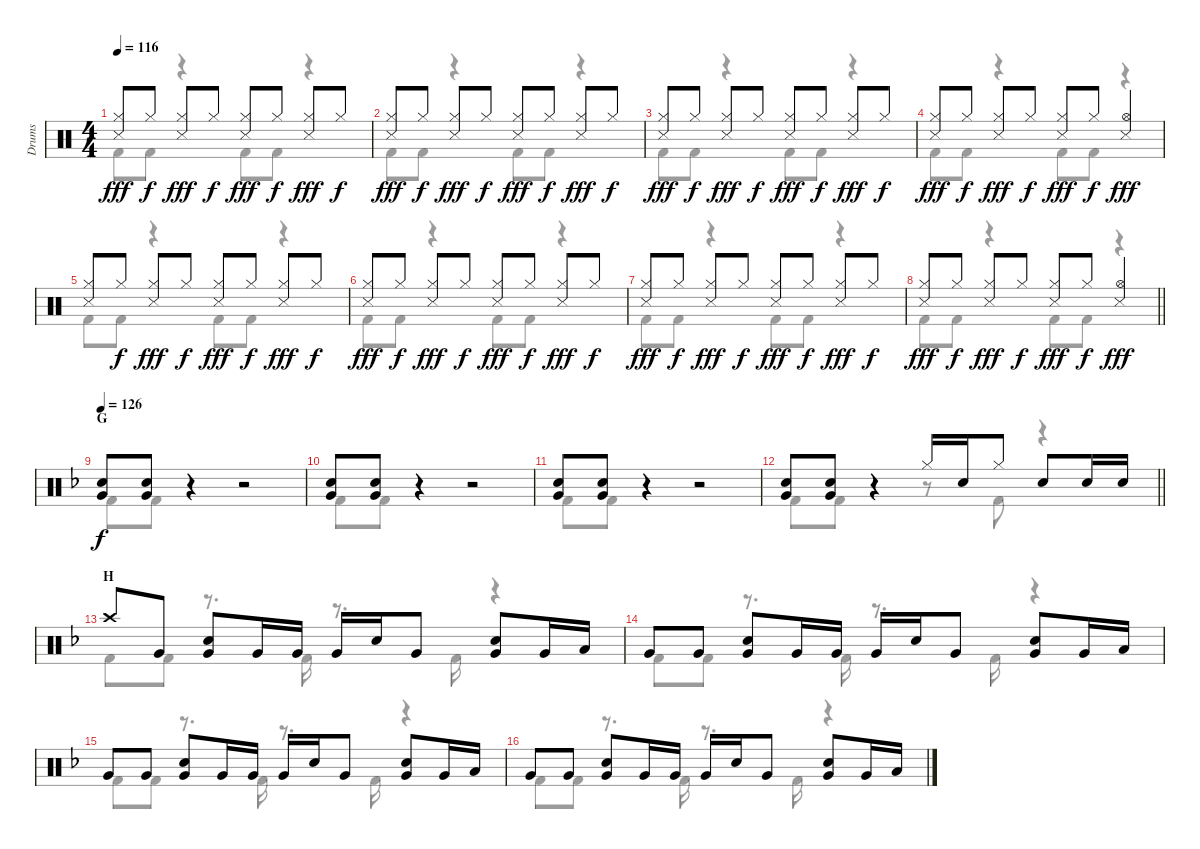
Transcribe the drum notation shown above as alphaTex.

\track ("Drums" "Drums") {instrument percussion}
\staff {score}
\articulation defaults
\voice
\ts (4 4)
\tempo 116
\clef neutral
\ks c
("Hi-Hat (closed)" "Snare (side stick) 3").8{dy fff} "Hi-Hat (closed)".8{dy f} ("Hi-Hat (closed)" "Snare (side stick) 3").8{dy fff} "Hi-Hat (closed)".8{dy f} ("Hi-Hat (closed)" "Snare (side stick) 3").8{dy fff} "Hi-Hat (closed)".8{dy f} ("Hi-Hat (closed)" "Snare (side stick) 3").8{dy fff} "Hi-Hat (closed)".8{dy f} |
("Hi-Hat (closed)" "Snare (side stick) 3").8{dy fff} "Hi-Hat (closed)".8{dy f} ("Hi-Hat (closed)" "Snare (side stick) 3").8{dy fff} "Hi-Hat (closed)".8{dy f} ("Hi-Hat (closed)" "Snare (side stick) 3").8{dy fff} "Hi-Hat (closed)".8{dy f} ("Hi-Hat (closed)" "Snare (side stick) 3").8{dy fff} "Hi-Hat (closed)".8{dy f} |
("Hi-Hat (closed)" "Snare (side stick) 3").8{dy fff} "Hi-Hat (closed)".8{dy f} ("Hi-Hat (closed)" "Snare (side stick) 3").8{dy fff} "Hi-Hat (closed)".8{dy f} ("Hi-Hat (closed)" "Snare (side stick) 3").8{dy fff} "Hi-Hat (closed)".8{dy f} ("Hi-Hat (closed)" "Snare (side stick) 3").8{dy fff} "Hi-Hat (closed)".8{dy f} |
("Hi-Hat (closed)" "Snare (side stick) 3").8{dy fff} "Hi-Hat (closed)".8{dy f} ("Hi-Hat (closed)" "Snare (side stick) 3").8{dy fff} "Hi-Hat (closed)".8{dy f} ("Hi-Hat (closed)" "Snare (side stick) 3").8{dy fff} "Hi-Hat (closed)".8{dy f} ("Hi-Hat (open)" "Snare (side stick) 3").4{dy fff} |
("Hi-Hat (closed)" "Snare (side stick) 3").8 "Hi-Hat (closed)".8{dy f} ("Hi-Hat (closed)" "Snare (side stick) 3").8{dy fff} "Hi-Hat (closed)".8{dy f} ("Hi-Hat (closed)" "Snare (side stick) 3").8{dy fff} "Hi-Hat (closed)".8{dy f} ("Hi-Hat (closed)" "Snare (side stick) 3").8{dy fff} "Hi-Hat (closed)".8{dy f} |
("Hi-Hat (closed)" "Snare (side stick) 3").8{dy fff} "Hi-Hat (closed)".8{dy f} ("Hi-Hat (closed)" "Snare (side stick) 3").8{dy fff} "Hi-Hat (closed)".8{dy f} ("Hi-Hat (closed)" "Snare (side stick) 3").8{dy fff} "Hi-Hat (closed)".8{dy f} ("Hi-Hat (closed)" "Snare (side stick) 3").8{dy fff} "Hi-Hat (closed)".8{dy f} |
("Hi-Hat (closed)" "Snare (side stick) 3").8{dy fff} "Hi-Hat (closed)".8{dy f} ("Hi-Hat (closed)" "Snare (side stick) 3").8{dy fff} "Hi-Hat (closed)".8{dy f} ("Hi-Hat (closed)" "Snare (side stick) 3").8{dy fff} "Hi-Hat (closed)".8{dy f} ("Hi-Hat (closed)" "Snare (side stick) 3").8{dy fff} "Hi-Hat (closed)".8{dy f} |
\barLineRight lightlight
("Hi-Hat (closed)" "Snare (side stick) 3").8{dy fff} "Hi-Hat (closed)".8{dy f} ("Hi-Hat (closed)" "Snare (side stick) 3").8{dy fff} "Hi-Hat (closed)".8{dy f} ("Hi-Hat (closed)" "Snare (side stick) 3").8{dy fff} "Hi-Hat (closed)".8{dy f} ("Hi-Hat (open)" "Snare (side stick) 3").4{dy fff} |
\section ("" "G")
\tempo 126
\ks f
("Snare (hit) 2" "Very Low Tom (hit)").8{dy f} ("Snare (hit) 2" "Very Low Tom (hit)").8 r.4 r.2 |
("Snare (hit) 2" "Very Low Tom (hit)").8 ("Snare (hit) 2" "Very Low Tom (hit)").8 r.4 r.2 |
("Snare (hit) 2" "Very Low Tom (hit)").8 ("Snare (hit) 2" "Very Low Tom (hit)").8 r.4 r.2 |
\barLineRight lightlight
("Snare (hit) 2" "Very Low Tom (hit)").8 ("Snare (hit) 2" "Very Low Tom (hit)").8 r.4 "Hi-Hat (closed)".16 "Snare (hit) 2".16 "Hi-Hat (closed)".8 "Snare (hit) 2".8 "Snare (hit) 2".16 "Snare (hit) 2".16 |
\section ("" "H")
"Crash high (hit)".8 "Very Low Tom (hit)".8 ("Snare (hit) 2" "Very Low Tom (hit)").8 "Very Low Tom (hit)".16 "Very Low Tom (hit)".16 "Very Low Tom (hit)".16 "Snare (hit) 2".16 "Very Low Tom (hit)".8 ("Snare (hit) 2" "Very Low Tom (hit)").8 "Very Low Tom (hit)".16 "Low Tom (hit)".16 |
"Very Low Tom (hit)".8 "Very Low Tom (hit)".8 ("Snare (hit) 2" "Very Low Tom (hit)").8 "Very Low Tom (hit)".16 "Very Low Tom (hit)".16 "Very Low Tom (hit)".16 "Snare (hit) 2".16 "Very Low Tom (hit)".8 ("Snare (hit) 2" "Very Low Tom (hit)").8 "Very Low Tom (hit)".16 "Low Tom (hit)".16 |
"Very Low Tom (hit)".8 "Very Low Tom (hit)".8 ("Snare (hit) 2" "Very Low Tom (hit)").8 "Very Low Tom (hit)".16 "Very Low Tom (hit)".16 "Very Low Tom (hit)".16 "Snare (hit) 2".16 "Very Low Tom (hit)".8 ("Snare (hit) 2" "Very Low Tom (hit)").8 "Very Low Tom (hit)".16 "Low Tom (hit)".16 |
"Very Low Tom (hit)".8 "Very Low Tom (hit)".8 ("Snare (hit) 2" "Very Low Tom (hit)").8 "Very Low Tom (hit)".16 "Very Low Tom (hit)".16 "Very Low Tom (hit)".16 "Snare (hit) 2".16 "Very Low Tom (hit)".8 ("Snare (hit) 2" "Very Low Tom (hit)").8 "Very Low Tom (hit)".16 "Low Tom (hit)".16
\voice
\clef neutral
\ottava regular
\simile none
\ks c "Kick (hit) 2".8{dy fff} "Kick (hit) 2".8
r.4 "Kick (hit) 2".8 "Kick (hit) 2".8 r.4 |
"Kick (hit) 2".8 "Kick (hit) 2".8 r.4 "Kick (hit) 2".8 "Kick (hit) 2".8 r.4 |
"Kick (hit) 2".8 "Kick (hit) 2".8 r.4 "Kick (hit) 2".8 "Kick (hit) 2".8 r.4 |
"Kick (hit) 2".8 "Kick (hit) 2".8 r.4 "Kick (hit) 2".8 "Kick (hit) 2".8 r.4 |
"Kick (hit) 2".8 "Kick (hit) 2".8 r.4 "Kick (hit) 2".8 "Kick (hit) 2".8 r.4 |
"Kick (hit) 2".8 "Kick (hit) 2".8 r.4 "Kick (hit) 2".8 "Kick (hit) 2".8 r.4 |
"Kick (hit) 2".8 "Kick (hit) 2".8 r.4 "Kick (hit) 2".8 "Kick (hit) 2".8 r.4 |
\barLineRight lightlight "Kick (hit) 2".8 "Kick (hit) 2".8
r.4 "Kick (hit) 2".8 "Kick (hit) 2".8 r.4 |
\ks f "Kick (hit) 2".8 "Kick (hit) 2".8
r.4 r.2 |
"Kick (hit) 2".8 "Kick (hit) 2".8 r.4 r.2 |
"Kick (hit) 2".8 "Kick (hit) 2".8 r.4 r.2 |
\barLineRight lightlight "Kick (hit) 2".8 "Kick (hit) 2".8
r.4 r.8 "Kick (hit) 2".8 r.4 |
"Kick (hit) 2".8 "Kick (hit) 2".8 r.8{d} "Kick (hit) 2".16 r.8{d} "Kick (hit) 2".16 r.4 |
"Kick (hit) 2".8 "Kick (hit) 2".8 r.8{d} "Kick (hit) 2".16 r.8{d} "Kick (hit) 2".16 r.4 |
"Kick (hit) 2".8 "Kick (hit) 2".8 r.8{d} "Kick (hit) 2".16 r.8{d} "Kick (hit) 2".16 r.4 |
"Kick (hit) 2".8 "Kick (hit) 2".8 r.8{d} "Kick (hit) 2".16 r.8{d} "Kick (hit) 2".16 r.4
